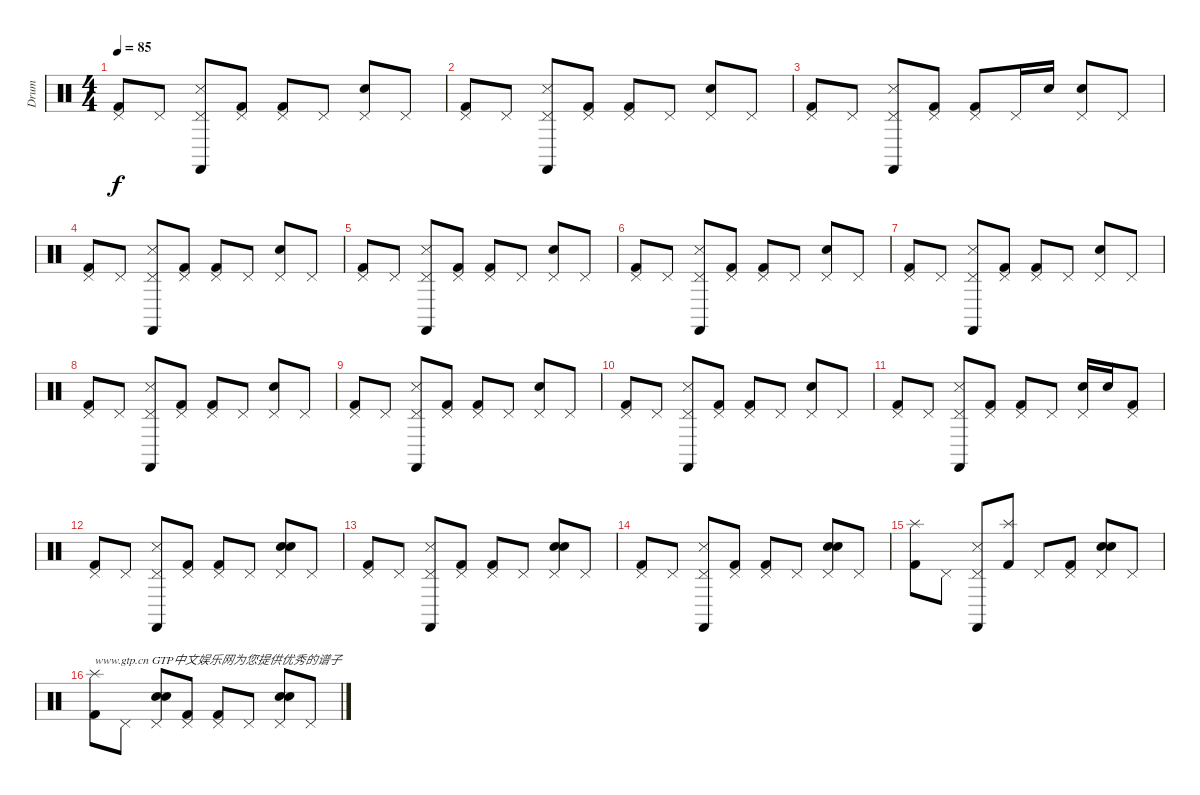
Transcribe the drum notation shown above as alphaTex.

\track ("Drum" "Drum") {instrument percussion}
\staff {score}
\articulation defaults
\ts (4 4)
\tempo 85
\clef neutral
\ks c
("Pedal Hi-Hat (hit)" "Kick (hit) 2").8{dy f} "Pedal Hi-Hat (hit)".8 ("Pedal Hi-Hat (hit)" "Metronome (hit)" "Castanets (hit)").8 ("Pedal Hi-Hat (hit)" "Kick (hit) 2").8 ("Pedal Hi-Hat (hit)" "Kick (hit) 2").8 "Pedal Hi-Hat (hit)".8 ("Pedal Hi-Hat (hit)" "Hand Clap (hit)").8 "Pedal Hi-Hat (hit)".8 |
("Pedal Hi-Hat (hit)" "Kick (hit) 2").8 "Pedal Hi-Hat (hit)".8 ("Pedal Hi-Hat (hit)" "Metronome (hit)" "Castanets (hit)").8 ("Pedal Hi-Hat (hit)" "Kick (hit) 2").8 ("Pedal Hi-Hat (hit)" "Kick (hit) 2").8 "Pedal Hi-Hat (hit)".8 ("Pedal Hi-Hat (hit)" "Hand Clap (hit)").8 "Pedal Hi-Hat (hit)".8 |
("Pedal Hi-Hat (hit)" "Kick (hit) 2").8 "Pedal Hi-Hat (hit)".8 ("Pedal Hi-Hat (hit)" "Metronome (hit)" "Castanets (hit)").8 ("Pedal Hi-Hat (hit)" "Kick (hit) 2").8 ("Pedal Hi-Hat (hit)" "Kick (hit) 2").8 "Pedal Hi-Hat (hit)".16 "Hand Clap (hit)".16 ("Pedal Hi-Hat (hit)" "Hand Clap (hit)").8 "Pedal Hi-Hat (hit)".8 |
("Pedal Hi-Hat (hit)" "Kick (hit) 2").8 "Pedal Hi-Hat (hit)".8 ("Pedal Hi-Hat (hit)" "Metronome (hit)" "Castanets (hit)").8 ("Pedal Hi-Hat (hit)" "Kick (hit) 2").8 ("Pedal Hi-Hat (hit)" "Kick (hit) 2").8 "Pedal Hi-Hat (hit)".8 ("Pedal Hi-Hat (hit)" "Hand Clap (hit)").8 "Pedal Hi-Hat (hit)".8 |
("Pedal Hi-Hat (hit)" "Kick (hit) 2").8 "Pedal Hi-Hat (hit)".8 ("Pedal Hi-Hat (hit)" "Metronome (hit)" "Castanets (hit)").8 ("Pedal Hi-Hat (hit)" "Kick (hit) 2").8 ("Pedal Hi-Hat (hit)" "Kick (hit) 2").8 "Pedal Hi-Hat (hit)".8 ("Pedal Hi-Hat (hit)" "Hand Clap (hit)").8 "Pedal Hi-Hat (hit)".8 |
("Pedal Hi-Hat (hit)" "Kick (hit) 2").8 "Pedal Hi-Hat (hit)".8 ("Pedal Hi-Hat (hit)" "Metronome (hit)" "Castanets (hit)").8 ("Pedal Hi-Hat (hit)" "Kick (hit) 2").8 ("Pedal Hi-Hat (hit)" "Kick (hit) 2").8 "Pedal Hi-Hat (hit)".8 ("Pedal Hi-Hat (hit)" "Hand Clap (hit)").8 "Pedal Hi-Hat (hit)".8 |
("Pedal Hi-Hat (hit)" "Kick (hit) 2").8 "Pedal Hi-Hat (hit)".8 ("Pedal Hi-Hat (hit)" "Metronome (hit)" "Castanets (hit)").8 ("Pedal Hi-Hat (hit)" "Kick (hit) 2").8 ("Pedal Hi-Hat (hit)" "Kick (hit) 2").8 "Pedal Hi-Hat (hit)".8 ("Pedal Hi-Hat (hit)" "Hand Clap (hit)").8 "Pedal Hi-Hat (hit)".8 |
("Pedal Hi-Hat (hit)" "Kick (hit) 2").8 "Pedal Hi-Hat (hit)".8 ("Pedal Hi-Hat (hit)" "Metronome (hit)" "Castanets (hit)").8 ("Pedal Hi-Hat (hit)" "Kick (hit) 2").8 ("Pedal Hi-Hat (hit)" "Kick (hit) 2").8 "Pedal Hi-Hat (hit)".8 ("Pedal Hi-Hat (hit)" "Hand Clap (hit)").8 "Pedal Hi-Hat (hit)".8 |
("Pedal Hi-Hat (hit)" "Kick (hit) 2").8 "Pedal Hi-Hat (hit)".8 ("Pedal Hi-Hat (hit)" "Metronome (hit)" "Castanets (hit)").8 ("Pedal Hi-Hat (hit)" "Kick (hit) 2").8 ("Pedal Hi-Hat (hit)" "Kick (hit) 2").8 "Pedal Hi-Hat (hit)".8 ("Pedal Hi-Hat (hit)" "Hand Clap (hit)").8 "Pedal Hi-Hat (hit)".8 |
("Pedal Hi-Hat (hit)" "Kick (hit) 2").8 "Pedal Hi-Hat (hit)".8 ("Pedal Hi-Hat (hit)" "Metronome (hit)" "Castanets (hit)").8 ("Pedal Hi-Hat (hit)" "Kick (hit) 2").8 ("Pedal Hi-Hat (hit)" "Kick (hit) 2").8 "Pedal Hi-Hat (hit)".8 ("Pedal Hi-Hat (hit)" "Hand Clap (hit)").8 "Pedal Hi-Hat (hit)".8 |
("Pedal Hi-Hat (hit)" "Kick (hit) 2").8 "Pedal Hi-Hat (hit)".8 ("Pedal Hi-Hat (hit)" "Metronome (hit)" "Castanets (hit)").8 ("Pedal Hi-Hat (hit)" "Kick (hit) 2").8 ("Pedal Hi-Hat (hit)" "Kick (hit) 2").8 "Pedal Hi-Hat (hit)".8 ("Pedal Hi-Hat (hit)" "Hand Clap (hit)").16 "Hand Clap (hit)".16 ("Pedal Hi-Hat (hit)" "Kick (hit) 2").8 |
("Pedal Hi-Hat (hit)" "Kick (hit) 2").8 "Pedal Hi-Hat (hit)".8 ("Pedal Hi-Hat (hit)" "Metronome (hit)" "Castanets (hit)").8 ("Pedal Hi-Hat (hit)" "Kick (hit) 2").8 ("Pedal Hi-Hat (hit)" "Kick (hit) 2").8 "Pedal Hi-Hat (hit)".8 ("Pedal Hi-Hat (hit)" "Hand Clap (hit)" "Snare (hit) 2").8 "Pedal Hi-Hat (hit)".8 |
("Pedal Hi-Hat (hit)" "Kick (hit) 2").8 "Pedal Hi-Hat (hit)".8 ("Pedal Hi-Hat (hit)" "Metronome (hit)" "Castanets (hit)").8 ("Pedal Hi-Hat (hit)" "Kick (hit) 2").8 ("Pedal Hi-Hat (hit)" "Kick (hit) 2").8 "Pedal Hi-Hat (hit)".8 ("Pedal Hi-Hat (hit)" "Hand Clap (hit)" "Snare (hit) 2").8 "Pedal Hi-Hat (hit)".8 |
("Pedal Hi-Hat (hit)" "Kick (hit) 2").8 "Pedal Hi-Hat (hit)".8 ("Pedal Hi-Hat (hit)" "Metronome (hit)" "Castanets (hit)").8 ("Pedal Hi-Hat (hit)" "Kick (hit) 2").8 ("Pedal Hi-Hat (hit)" "Kick (hit) 2").8 "Pedal Hi-Hat (hit)".8 ("Pedal Hi-Hat (hit)" "Hand Clap (hit)" "Snare (hit) 2").8 "Pedal Hi-Hat (hit)".8 |
("Splash (hit)" "Kick (hit) 2").8 "Pedal Hi-Hat (hit)".8 ("Pedal Hi-Hat (hit)" "Metronome (hit)" "Castanets (hit)").8 ("Splash (hit)" "Kick (hit) 2").8 "Pedal Hi-Hat (hit)".8 ("Pedal Hi-Hat (hit)" "Kick (hit) 2").8 ("Pedal Hi-Hat (hit)" "Hand Clap (hit)" "Snare (hit) 2").8 "Pedal Hi-Hat (hit)".8 |
("Splash (hit)" "Kick (hit) 2").8{txt "www.gtp.cn GTP中文娱乐网为您提供优秀的谱子"} "Pedal Hi-Hat (hit)".8 ("Pedal Hi-Hat (hit)" "Hand Clap (hit)" "Snare (hit) 2").8 ("Pedal Hi-Hat (hit)" "Kick (hit) 2").8 ("Pedal Hi-Hat (hit)" "Kick (hit) 2").8 "Pedal Hi-Hat (hit)".8 ("Pedal Hi-Hat (hit)" "Hand Clap (hit)" "Snare (hit) 2").8 "Pedal Hi-Hat (hit)".8
